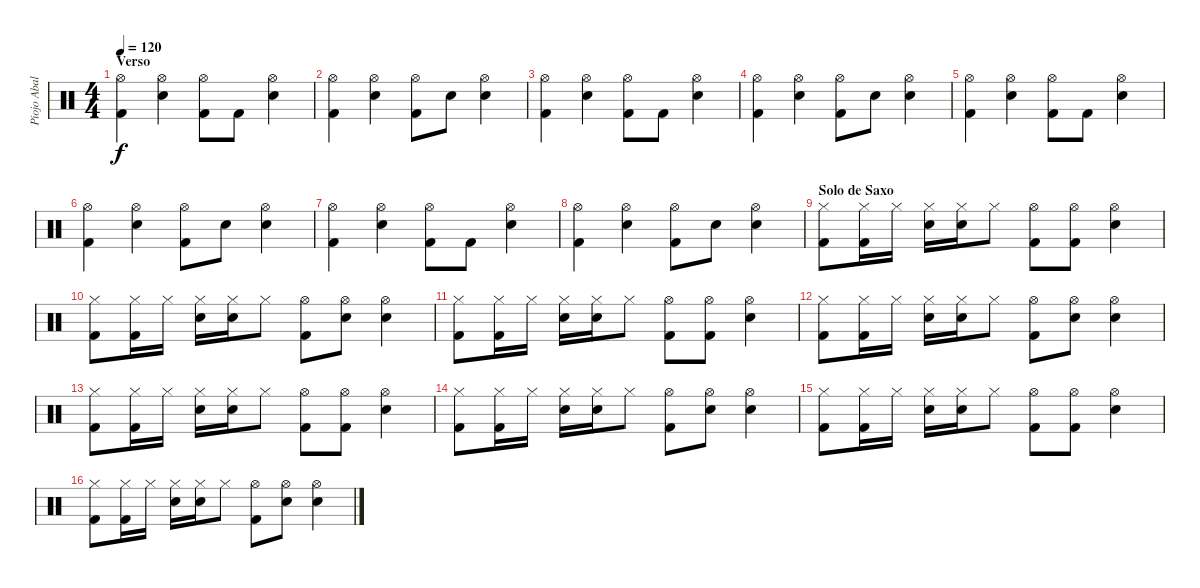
\track ("Piojo Abalos" "Piojo Abal") {instrument percussion}
\staff {score}
\articulation defaults
\ts (4 4)
\section ("" "Verso")
\tempo 120
\clef neutral
\ks c
("Hi-Hat (open)" "Kick (hit) 2").4{dy f} ("Hi-Hat (open)" "Electric Snare (hit)").4 ("Hi-Hat (open)" "Kick (hit) 2").8 "Kick (hit) 2".8 ("Hi-Hat (open)" "Electric Snare (hit)").4 |
("Hi-Hat (open)" "Kick (hit) 2").4 ("Hi-Hat (open)" "Electric Snare (hit)").4 ("Hi-Hat (open)" "Kick (hit) 2").8 "Electric Snare (hit)".8 ("Hi-Hat (open)" "Electric Snare (hit)").4 |
("Hi-Hat (open)" "Kick (hit) 2").4 ("Hi-Hat (open)" "Electric Snare (hit)").4 ("Hi-Hat (open)" "Kick (hit) 2").8 "Kick (hit) 2".8 ("Hi-Hat (open)" "Electric Snare (hit)").4 |
("Hi-Hat (open)" "Kick (hit) 2").4 ("Hi-Hat (open)" "Electric Snare (hit)").4 ("Hi-Hat (open)" "Kick (hit) 2").8 "Electric Snare (hit)".8 ("Hi-Hat (open)" "Electric Snare (hit)").4 |
("Hi-Hat (open)" "Kick (hit) 2").4 ("Hi-Hat (open)" "Electric Snare (hit)").4 ("Hi-Hat (open)" "Kick (hit) 2").8 "Kick (hit) 2".8 ("Hi-Hat (open)" "Electric Snare (hit)").4 |
("Hi-Hat (open)" "Kick (hit) 2").4 ("Hi-Hat (open)" "Electric Snare (hit)").4 ("Hi-Hat (open)" "Kick (hit) 2").8 "Electric Snare (hit)".8 ("Hi-Hat (open)" "Electric Snare (hit)").4 |
("Hi-Hat (open)" "Kick (hit) 2").4 ("Hi-Hat (open)" "Electric Snare (hit)").4 ("Hi-Hat (open)" "Kick (hit) 2").8 "Kick (hit) 2".8 ("Hi-Hat (open)" "Electric Snare (hit)").4 |
("Hi-Hat (open)" "Kick (hit) 2").4 ("Hi-Hat (open)" "Electric Snare (hit)").4 ("Hi-Hat (open)" "Kick (hit) 2").8 "Electric Snare (hit)".8 ("Hi-Hat (open)" "Electric Snare (hit)").4 |
\section ("" "Solo de Saxo")
("Hi-Hat (closed)" "Kick (hit) 2").8 ("Hi-Hat (closed)" "Kick (hit) 2").16 "Hi-Hat (closed)".16 ("Hi-Hat (closed)" "Electric Snare (hit)").16 ("Hi-Hat (closed)" "Electric Snare (hit)").16 "Hi-Hat (closed)".8 ("Hi-Hat (open)" "Kick (hit) 2").8 ("Hi-Hat (open)" "Kick (hit) 2").8 ("Hi-Hat (open)" "Electric Snare (hit)").4 |
("Hi-Hat (closed)" "Kick (hit) 2").8 ("Hi-Hat (closed)" "Kick (hit) 2").16 "Hi-Hat (closed)".16 ("Hi-Hat (closed)" "Electric Snare (hit)").16 ("Hi-Hat (closed)" "Electric Snare (hit)").16 "Hi-Hat (closed)".8 ("Hi-Hat (open)" "Kick (hit) 2").8 ("Hi-Hat (open)" "Electric Snare (hit)").8 ("Hi-Hat (open)" "Electric Snare (hit)").4 |
("Hi-Hat (closed)" "Kick (hit) 2").8 ("Hi-Hat (closed)" "Kick (hit) 2").16 "Hi-Hat (closed)".16 ("Hi-Hat (closed)" "Electric Snare (hit)").16 ("Hi-Hat (closed)" "Electric Snare (hit)").16 "Hi-Hat (closed)".8 ("Hi-Hat (open)" "Kick (hit) 2").8 ("Hi-Hat (open)" "Kick (hit) 2").8 ("Hi-Hat (open)" "Electric Snare (hit)").4 |
("Hi-Hat (closed)" "Kick (hit) 2").8 ("Hi-Hat (closed)" "Kick (hit) 2").16 "Hi-Hat (closed)".16 ("Hi-Hat (closed)" "Electric Snare (hit)").16 ("Hi-Hat (closed)" "Electric Snare (hit)").16 "Hi-Hat (closed)".8 ("Hi-Hat (open)" "Kick (hit) 2").8 ("Hi-Hat (open)" "Electric Snare (hit)").8 ("Hi-Hat (open)" "Electric Snare (hit)").4 |
("Hi-Hat (closed)" "Kick (hit) 2").8 ("Hi-Hat (closed)" "Kick (hit) 2").16 "Hi-Hat (closed)".16 ("Hi-Hat (closed)" "Electric Snare (hit)").16 ("Hi-Hat (closed)" "Electric Snare (hit)").16 "Hi-Hat (closed)".8 ("Hi-Hat (open)" "Kick (hit) 2").8 ("Hi-Hat (open)" "Kick (hit) 2").8 ("Hi-Hat (open)" "Electric Snare (hit)").4 |
("Hi-Hat (closed)" "Kick (hit) 2").8 ("Hi-Hat (closed)" "Kick (hit) 2").16 "Hi-Hat (closed)".16 ("Hi-Hat (closed)" "Electric Snare (hit)").16 ("Hi-Hat (closed)" "Electric Snare (hit)").16 "Hi-Hat (closed)".8 ("Hi-Hat (open)" "Kick (hit) 2").8 ("Hi-Hat (open)" "Electric Snare (hit)").8 ("Hi-Hat (open)" "Electric Snare (hit)").4 |
("Hi-Hat (closed)" "Kick (hit) 2").8 ("Hi-Hat (closed)" "Kick (hit) 2").16 "Hi-Hat (closed)".16 ("Hi-Hat (closed)" "Electric Snare (hit)").16 ("Hi-Hat (closed)" "Electric Snare (hit)").16 "Hi-Hat (closed)".8 ("Hi-Hat (open)" "Kick (hit) 2").8 ("Hi-Hat (open)" "Kick (hit) 2").8 ("Hi-Hat (open)" "Electric Snare (hit)").4 |
("Hi-Hat (closed)" "Kick (hit) 2").8 ("Hi-Hat (closed)" "Kick (hit) 2").16 "Hi-Hat (closed)".16 ("Hi-Hat (closed)" "Electric Snare (hit)").16 ("Hi-Hat (closed)" "Electric Snare (hit)").16 "Hi-Hat (closed)".8 ("Hi-Hat (open)" "Kick (hit) 2").8 ("Hi-Hat (open)" "Electric Snare (hit)").8 ("Hi-Hat (open)" "Electric Snare (hit)").4
